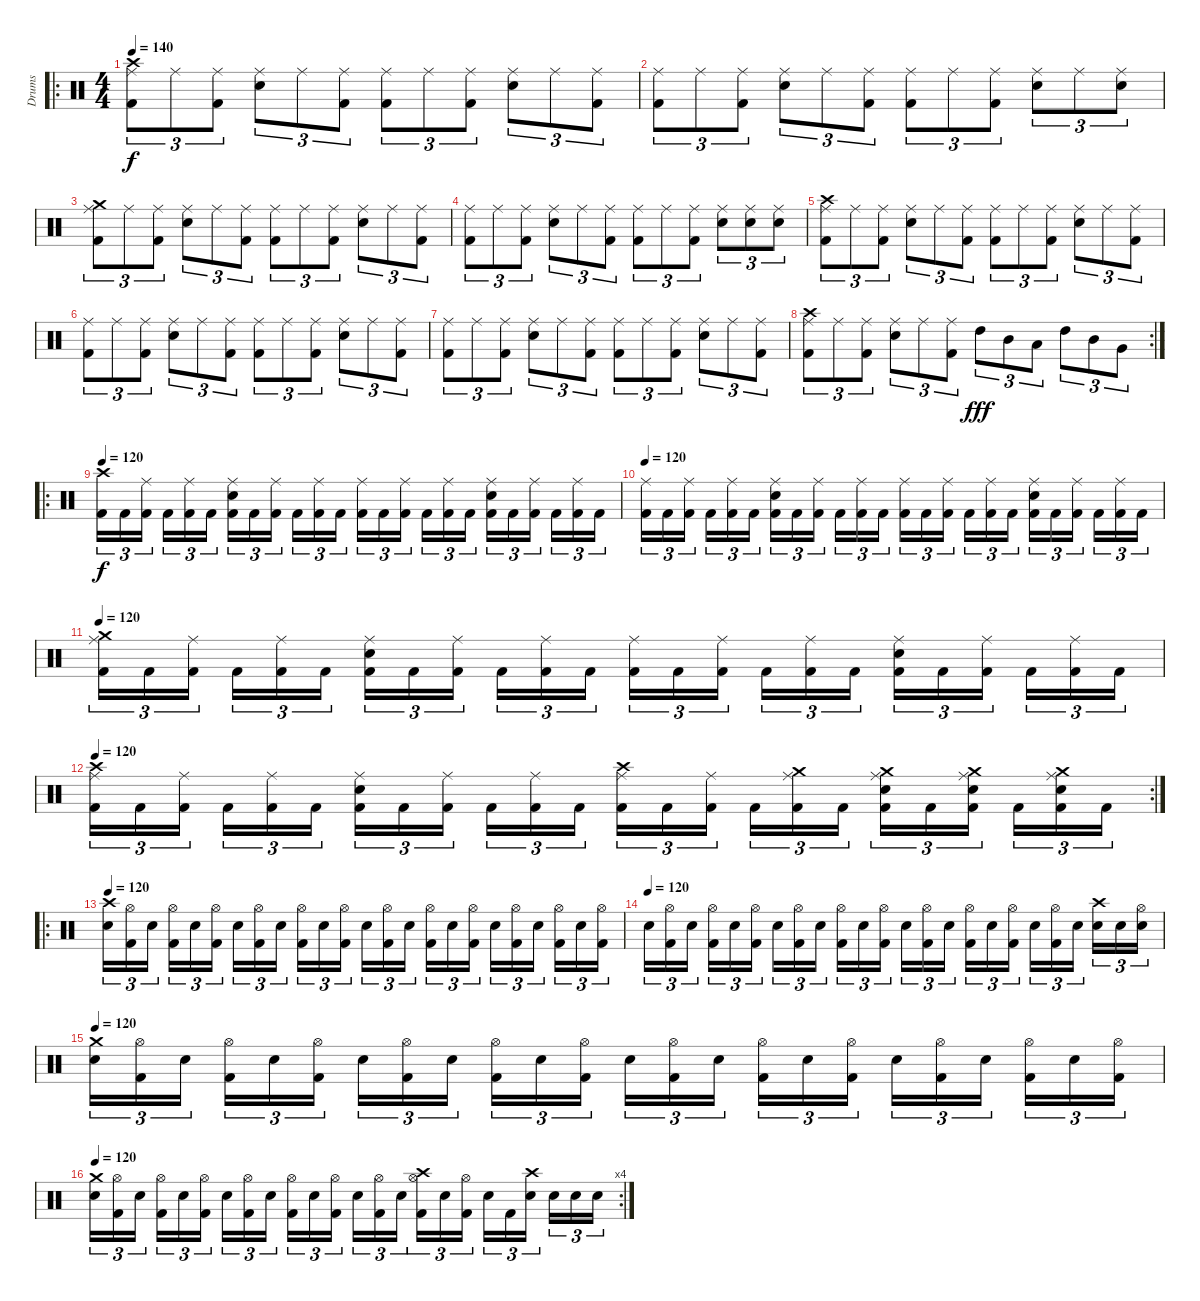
\track ("Drums" "Drums") {instrument percussion}
\staff {score}
\articulation defaults
\ro
\ts (4 4)
\tempo 140
\clef neutral
\ks c
("Crash high (hit)" "Ride (middle)" "Kick (hit) 2").8{tu (3 2) dy f} "Ride (middle)".8{tu (3 2)} ("Ride (middle)" "Kick (hit) 2").8{tu (3 2)} ("Ride (middle)" "Electric Snare (hit)").8{tu (3 2)} "Ride (middle)".8{tu (3 2)} ("Ride (middle)" "Kick (hit) 2").8{tu (3 2)} ("Ride (middle)" "Kick (hit) 2").8{tu (3 2)} "Ride (middle)".8{tu (3 2)} ("Ride (middle)" "Kick (hit) 2").8{tu (3 2)} ("Ride (middle)" "Electric Snare (hit)").8{tu (3 2)} "Ride (middle)".8{tu (3 2)} ("Ride (middle)" "Kick (hit) 2").8{tu (3 2)} |
("Ride (middle)" "Kick (hit) 2").8{tu (3 2)} "Ride (middle)".8{tu (3 2)} ("Ride (middle)" "Kick (hit) 2").8{tu (3 2)} ("Ride (middle)" "Electric Snare (hit)").8{tu (3 2)} "Ride (middle)".8{tu (3 2)} ("Ride (middle)" "Kick (hit) 2").8{tu (3 2)} ("Ride (middle)" "Kick (hit) 2").8{tu (3 2)} "Ride (middle)".8{tu (3 2)} ("Ride (middle)" "Kick (hit) 2").8{tu (3 2)} ("Ride (middle)" "Electric Snare (hit)").8{tu (3 2)} "Ride (middle)".8{tu (3 2)} ("Ride (middle)" "Electric Snare (hit)").8{tu (3 2)} |
("Crash medium (hit)" "Ride (middle)" "Kick (hit) 2").8{tu (3 2)} "Ride (middle)".8{tu (3 2)} ("Ride (middle)" "Kick (hit) 2").8{tu (3 2)} ("Ride (middle)" "Electric Snare (hit)").8{tu (3 2)} "Ride (middle)".8{tu (3 2)} ("Ride (middle)" "Kick (hit) 2").8{tu (3 2)} ("Ride (middle)" "Kick (hit) 2").8{tu (3 2)} "Ride (middle)".8{tu (3 2)} ("Ride (middle)" "Kick (hit) 2").8{tu (3 2)} ("Ride (middle)" "Electric Snare (hit)").8{tu (3 2)} "Ride (middle)".8{tu (3 2)} ("Ride (middle)" "Kick (hit) 2").8{tu (3 2)} |
("Ride (middle)" "Kick (hit) 2").8{tu (3 2)} "Ride (middle)".8{tu (3 2)} ("Ride (middle)" "Kick (hit) 2").8{tu (3 2)} ("Ride (middle)" "Electric Snare (hit)").8{tu (3 2)} "Ride (middle)".8{tu (3 2)} ("Ride (middle)" "Kick (hit) 2").8{tu (3 2)} ("Ride (middle)" "Kick (hit) 2").8{tu (3 2)} "Ride (middle)".8{tu (3 2)} ("Ride (middle)" "Kick (hit) 2").8{tu (3 2)} ("Ride (middle)" "Electric Snare (hit)").8{tu (3 2)} ("Ride (middle)" "Electric Snare (hit)").8{tu (3 2)} ("Ride (middle)" "Electric Snare (hit)").8{tu (3 2)} |
("Crash high (hit)" "Ride (middle)" "Kick (hit) 2").8{tu (3 2)} "Ride (middle)".8{tu (3 2)} ("Ride (middle)" "Kick (hit) 2").8{tu (3 2)} ("Ride (middle)" "Electric Snare (hit)").8{tu (3 2)} "Ride (middle)".8{tu (3 2)} ("Ride (middle)" "Kick (hit) 2").8{tu (3 2)} ("Ride (middle)" "Kick (hit) 2").8{tu (3 2)} "Ride (middle)".8{tu (3 2)} ("Ride (middle)" "Kick (hit) 2").8{tu (3 2)} ("Ride (middle)" "Electric Snare (hit)").8{tu (3 2)} "Ride (middle)".8{tu (3 2)} ("Ride (middle)" "Kick (hit) 2").8{tu (3 2)} |
("Ride (middle)" "Kick (hit) 2").8{tu (3 2)} "Ride (middle)".8{tu (3 2)} ("Ride (middle)" "Kick (hit) 2").8{tu (3 2)} ("Ride (middle)" "Electric Snare (hit)").8{tu (3 2)} "Ride (middle)".8{tu (3 2)} ("Ride (middle)" "Kick (hit) 2").8{tu (3 2)} ("Ride (middle)" "Kick (hit) 2").8{tu (3 2)} "Ride (middle)".8{tu (3 2)} ("Ride (middle)" "Kick (hit) 2").8{tu (3 2)} ("Ride (middle)" "Electric Snare (hit)").8{tu (3 2)} "Ride (middle)".8{tu (3 2)} ("Ride (middle)" "Kick (hit) 2").8{tu (3 2)} |
("Ride (middle)" "Kick (hit) 2").8{tu (3 2)} "Ride (middle)".8{tu (3 2)} ("Ride (middle)" "Kick (hit) 2").8{tu (3 2)} ("Ride (middle)" "Electric Snare (hit)").8{tu (3 2)} "Ride (middle)".8{tu (3 2)} ("Ride (middle)" "Kick (hit) 2").8{tu (3 2)} ("Ride (middle)" "Kick (hit) 2").8{tu (3 2)} "Ride (middle)".8{tu (3 2)} ("Ride (middle)" "Kick (hit) 2").8{tu (3 2)} ("Ride (middle)" "Electric Snare (hit)").8{tu (3 2)} "Ride (middle)".8{tu (3 2)} ("Ride (middle)" "Kick (hit) 2").8{tu (3 2)} |
\rc 2
("Crash high (hit)" "Ride (middle)" "Kick (hit) 2").8{tu (3 2)} "Ride (middle)".8{tu (3 2)} ("Ride (middle)" "Kick (hit) 2").8{tu (3 2)} ("Ride (middle)" "Electric Snare (hit)").8{tu (3 2)} "Ride (middle)".8{tu (3 2)} ("Ride (middle)" "Kick (hit) 2").8{tu (3 2)} "High Tom (hit)".8{tu (3 2) dy fff} "Mid Tom (hit)".8{tu (3 2)} "Low Tom (hit)".8{tu (3 2)} "High Tom (hit)".8{tu (3 2)} "Mid Tom (hit)".8{tu (3 2)} "Very Low Tom (hit)".8{tu (3 2)} |
\ro
\tempo 120
("Crash high (hit)" "Kick (hit) 2").16{tu (3 2) dy f} "Kick (hit) 2".16{tu (3 2)} ("Ride (middle)" "Kick (hit) 2").16{tu (3 2)} "Kick (hit) 2".16{tu (3 2)} ("Ride (middle)" "Kick (hit) 2").16{tu (3 2)} "Kick (hit) 2".16{tu (3 2)} ("Ride (middle)" "Electric Snare (hit)" "Kick (hit) 2").16{tu (3 2)} "Kick (hit) 2".16{tu (3 2)} ("Ride (middle)" "Kick (hit) 2").16{tu (3 2)} "Kick (hit) 2".16{tu (3 2)} ("Ride (middle)" "Kick (hit) 2").16{tu (3 2)} "Kick (hit) 2".16{tu (3 2)} ("Ride (middle)" "Kick (hit) 2").16{tu (3 2)} "Kick (hit) 2".16{tu (3 2)} ("Ride (middle)" "Kick (hit) 2").16{tu (3 2)} "Kick (hit) 2".16{tu (3 2)} ("Ride (middle)" "Kick (hit) 2").16{tu (3 2)} "Kick (hit) 2".16{tu (3 2)} ("Ride (middle)" "Electric Snare (hit)" "Kick (hit) 2").16{tu (3 2)} "Kick (hit) 2".16{tu (3 2)} ("Ride (middle)" "Kick (hit) 2").16{tu (3 2)} "Kick (hit) 2".16{tu (3 2)} ("Ride (middle)" "Kick (hit) 2").16{tu (3 2)} "Kick (hit) 2".16{tu (3 2)} |
\tempo 120
("Ride (middle)" "Kick (hit) 2").16{tu (3 2)} "Kick (hit) 2".16{tu (3 2)} ("Ride (middle)" "Kick (hit) 2").16{tu (3 2)} "Kick (hit) 2".16{tu (3 2)} ("Ride (middle)" "Kick (hit) 2").16{tu (3 2)} "Kick (hit) 2".16{tu (3 2)} ("Ride (middle)" "Electric Snare (hit)" "Kick (hit) 2").16{tu (3 2)} "Kick (hit) 2".16{tu (3 2)} ("Ride (middle)" "Kick (hit) 2").16{tu (3 2)} "Kick (hit) 2".16{tu (3 2)} ("Ride (middle)" "Kick (hit) 2").16{tu (3 2)} "Kick (hit) 2".16{tu (3 2)} ("Ride (middle)" "Kick (hit) 2").16{tu (3 2)} "Kick (hit) 2".16{tu (3 2)} ("Ride (middle)" "Kick (hit) 2").16{tu (3 2)} "Kick (hit) 2".16{tu (3 2)} ("Ride (middle)" "Kick (hit) 2").16{tu (3 2)} "Kick (hit) 2".16{tu (3 2)} ("Ride (middle)" "Electric Snare (hit)" "Kick (hit) 2").16{tu (3 2)} "Kick (hit) 2".16{tu (3 2)} ("Ride (middle)" "Kick (hit) 2").16{tu (3 2)} "Kick (hit) 2".16{tu (3 2)} ("Ride (middle)" "Kick (hit) 2").16{tu (3 2)} "Kick (hit) 2".16{tu (3 2)} |
\tempo 120
("Crash medium (hit)" "Ride (middle)" "Kick (hit) 2").16{tu (3 2)} "Kick (hit) 2".16{tu (3 2)} ("Ride (middle)" "Kick (hit) 2").16{tu (3 2)} "Kick (hit) 2".16{tu (3 2)} ("Ride (middle)" "Kick (hit) 2").16{tu (3 2)} "Kick (hit) 2".16{tu (3 2)} ("Ride (middle)" "Electric Snare (hit)" "Kick (hit) 2").16{tu (3 2)} "Kick (hit) 2".16{tu (3 2)} ("Ride (middle)" "Kick (hit) 2").16{tu (3 2)} "Kick (hit) 2".16{tu (3 2)} ("Ride (middle)" "Kick (hit) 2").16{tu (3 2)} "Kick (hit) 2".16{tu (3 2)} ("Ride (middle)" "Kick (hit) 2").16{tu (3 2)} "Kick (hit) 2".16{tu (3 2)} ("Ride (middle)" "Kick (hit) 2").16{tu (3 2)} "Kick (hit) 2".16{tu (3 2)} ("Ride (middle)" "Kick (hit) 2").16{tu (3 2)} "Kick (hit) 2".16{tu (3 2)} ("Ride (middle)" "Electric Snare (hit)" "Kick (hit) 2").16{tu (3 2)} "Kick (hit) 2".16{tu (3 2)} ("Ride (middle)" "Kick (hit) 2").16{tu (3 2)} "Kick (hit) 2".16{tu (3 2)} ("Ride (middle)" "Kick (hit) 2").16{tu (3 2)} "Kick (hit) 2".16{tu (3 2)} |
\rc 2
\tempo 120
("Crash high (hit)" "Ride (middle)" "Kick (hit) 2").16{tu (3 2)} "Kick (hit) 2".16{tu (3 2)} ("Ride (middle)" "Kick (hit) 2").16{tu (3 2)} "Kick (hit) 2".16{tu (3 2)} ("Ride (middle)" "Kick (hit) 2").16{tu (3 2)} "Kick (hit) 2".16{tu (3 2)} ("Ride (middle)" "Electric Snare (hit)" "Kick (hit) 2").16{tu (3 2)} "Kick (hit) 2".16{tu (3 2)} ("Ride (middle)" "Kick (hit) 2").16{tu (3 2)} "Kick (hit) 2".16{tu (3 2)} ("Ride (middle)" "Kick (hit) 2").16{tu (3 2)} "Kick (hit) 2".16{tu (3 2)} ("Crash high (hit)" "Ride (middle)" "Kick (hit) 2").16{tu (3 2)} "Kick (hit) 2".16{tu (3 2)} ("Ride (middle)" "Kick (hit) 2").16{tu (3 2)} "Kick (hit) 2".16{tu (3 2)} ("Crash medium (hit)" "Ride (middle)" "Kick (hit) 2").16{tu (3 2)} "Kick (hit) 2".16{tu (3 2)} ("Crash medium (hit)" "Ride (middle)" "Electric Snare (hit)" "Kick (hit) 2").16{tu (3 2)} "Kick (hit) 2".16{tu (3 2)} ("Crash medium (hit)" "Ride (middle)" "Electric Snare (hit)" "Kick (hit) 2").16{tu (3 2)} "Kick (hit) 2".16{tu (3 2)} ("Crash medium (hit)" "Ride (middle)" "Electric Snare (hit)" "Kick (hit) 2").16{tu (3 2)} "Kick (hit) 2".16{tu (3 2)} |
\ro
\tempo 120
("Crash high (hit)" "Electric Snare (hit)").16{tu (3 2)} ("Hi-Hat (open)" "Kick (hit) 2").16{tu (3 2)} "Electric Snare (hit)".16{tu (3 2)} ("Hi-Hat (open)" "Kick (hit) 2").16{tu (3 2)} "Electric Snare (hit)".16{tu (3 2)} ("Hi-Hat (open)" "Kick (hit) 2").16{tu (3 2)} "Electric Snare (hit)".16{tu (3 2)} ("Hi-Hat (open)" "Kick (hit) 2").16{tu (3 2)} "Electric Snare (hit)".16{tu (3 2)} ("Hi-Hat (open)" "Kick (hit) 2").16{tu (3 2)} "Electric Snare (hit)".16{tu (3 2)} ("Hi-Hat (open)" "Kick (hit) 2").16{tu (3 2)} "Electric Snare (hit)".16{tu (3 2)} ("Hi-Hat (open)" "Kick (hit) 2").16{tu (3 2)} "Electric Snare (hit)".16{tu (3 2)} ("Hi-Hat (open)" "Kick (hit) 2").16{tu (3 2)} "Electric Snare (hit)".16{tu (3 2)} ("Hi-Hat (open)" "Kick (hit) 2").16{tu (3 2)} "Electric Snare (hit)".16{tu (3 2)} ("Hi-Hat (open)" "Kick (hit) 2").16{tu (3 2)} "Electric Snare (hit)".16{tu (3 2)} ("Hi-Hat (open)" "Kick (hit) 2").16{tu (3 2)} "Electric Snare (hit)".16{tu (3 2)} ("Hi-Hat (open)" "Kick (hit) 2").16{tu (3 2)} |
\tempo (120)
"Electric Snare (hit)".16{tu (3 2)} ("Hi-Hat (open)" "Kick (hit) 2").16{tu (3 2)} "Electric Snare (hit)".16{tu (3 2)} ("Hi-Hat (open)" "Kick (hit) 2").16{tu (3 2)} "Electric Snare (hit)".16{tu (3 2)} ("Hi-Hat (open)" "Kick (hit) 2").16{tu (3 2)} "Electric Snare (hit)".16{tu (3 2)} ("Hi-Hat (open)" "Kick (hit) 2").16{tu (3 2)} "Electric Snare (hit)".16{tu (3 2)} ("Hi-Hat (open)" "Kick (hit) 2").16{tu (3 2)} "Electric Snare (hit)".16{tu (3 2)} ("Hi-Hat (open)" "Kick (hit) 2").16{tu (3 2)} "Electric Snare (hit)".16{tu (3 2)} ("Hi-Hat (open)" "Kick (hit) 2").16{tu (3 2)} "Electric Snare (hit)".16{tu (3 2)} ("Hi-Hat (open)" "Kick (hit) 2").16{tu (3 2)} "Electric Snare (hit)".16{tu (3 2)} ("Hi-Hat (open)" "Kick (hit) 2").16{tu (3 2)} "Electric Snare (hit)".16{tu (3 2)} ("Hi-Hat (open)" "Kick (hit) 2").16{tu (3 2)} "Electric Snare (hit)".16{tu (3 2)} ("Crash high (hit)" "Electric Snare (hit)").16{tu (3 2)} "Electric Snare (hit)".16{tu (3 2)} ("Hi-Hat (open)" "Electric Snare (hit)").16{tu (3 2)} |
\tempo 120
("Crash medium (hit)" "Electric Snare (hit)").16{tu (3 2)} ("Hi-Hat (open)" "Kick (hit) 2").16{tu (3 2)} "Electric Snare (hit)".16{tu (3 2)} ("Hi-Hat (open)" "Kick (hit) 2").16{tu (3 2)} "Electric Snare (hit)".16{tu (3 2)} ("Hi-Hat (open)" "Kick (hit) 2").16{tu (3 2)} "Electric Snare (hit)".16{tu (3 2)} ("Hi-Hat (open)" "Kick (hit) 2").16{tu (3 2)} "Electric Snare (hit)".16{tu (3 2)} ("Hi-Hat (open)" "Kick (hit) 2").16{tu (3 2)} "Electric Snare (hit)".16{tu (3 2)} ("Hi-Hat (open)" "Kick (hit) 2").16{tu (3 2)} "Electric Snare (hit)".16{tu (3 2)} ("Hi-Hat (open)" "Kick (hit) 2").16{tu (3 2)} "Electric Snare (hit)".16{tu (3 2)} ("Hi-Hat (open)" "Kick (hit) 2").16{tu (3 2)} "Electric Snare (hit)".16{tu (3 2)} ("Hi-Hat (open)" "Kick (hit) 2").16{tu (3 2)} "Electric Snare (hit)".16{tu (3 2)} ("Hi-Hat (open)" "Kick (hit) 2").16{tu (3 2)} "Electric Snare (hit)".16{tu (3 2)} ("Hi-Hat (open)" "Kick (hit) 2").16{tu (3 2)} "Electric Snare (hit)".16{tu (3 2)} ("Hi-Hat (open)" "Kick (hit) 2").16{tu (3 2)} |
\rc 4
\tempo 120
("Crash medium (hit)" "Electric Snare (hit)").16{tu (3 2)} ("Hi-Hat (open)" "Kick (hit) 2").16{tu (3 2)} "Electric Snare (hit)".16{tu (3 2)} ("Hi-Hat (open)" "Kick (hit) 2").16{tu (3 2)} "Electric Snare (hit)".16{tu (3 2)} ("Hi-Hat (open)" "Kick (hit) 2").16{tu (3 2)} "Electric Snare (hit)".16{tu (3 2)} ("Hi-Hat (open)" "Kick (hit) 2").16{tu (3 2)} "Electric Snare (hit)".16{tu (3 2)} ("Hi-Hat (open)" "Kick (hit) 2").16{tu (3 2)} "Electric Snare (hit)".16{tu (3 2)} ("Hi-Hat (open)" "Kick (hit) 2").16{tu (3 2)} "Electric Snare (hit)".16{tu (3 2)} ("Hi-Hat (open)" "Kick (hit) 2").16{tu (3 2)} "Electric Snare (hit)".16{tu (3 2)} ("Crash high (hit)" "Hi-Hat (open)" "Kick (hit) 2").16{tu (3 2)} "Electric Snare (hit)".16{tu (3 2)} ("Hi-Hat (open)" "Kick (hit) 2").16{tu (3 2)} "Electric Snare (hit)".16{tu (3 2)} "Kick (hit) 2".16{tu (3 2)} ("Crash high (hit)" "Electric Snare (hit)").16{tu (3 2)} "Electric Snare (hit)".16{tu (3 2)} "Electric Snare (hit)".16{tu (3 2)} "Electric Snare (hit)".16{tu (3 2)}
